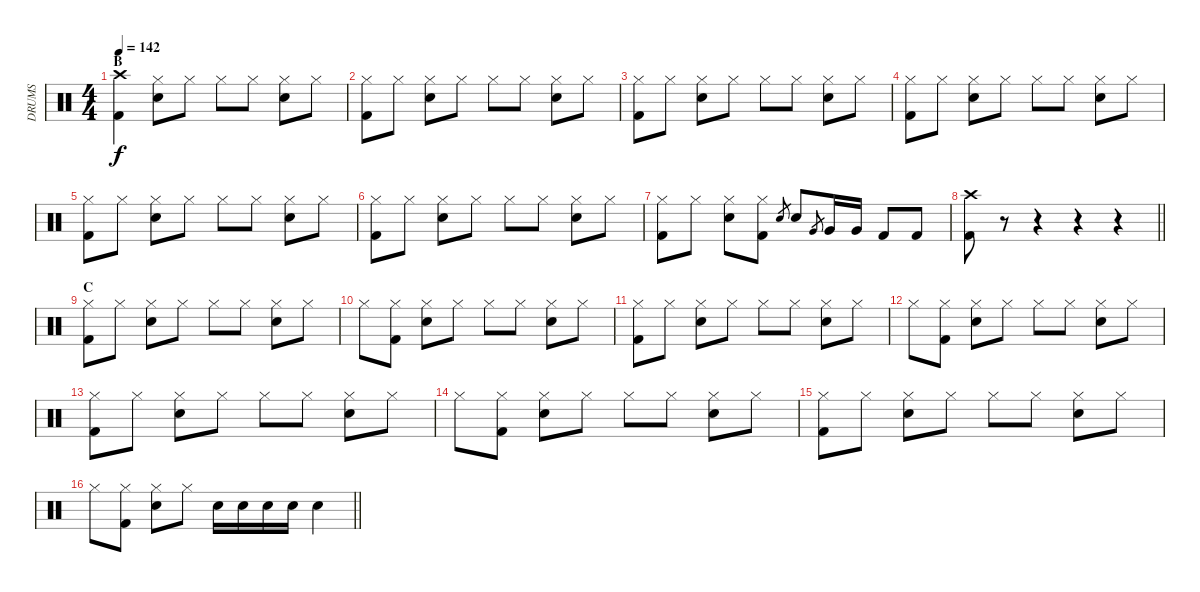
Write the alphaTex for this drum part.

\track ("DRUMS" "DRUMS") {instrument percussion}
\staff {score}
\articulation defaults
\ts (4 4)
\section ("" "B")
\tempo 142
\clef neutral
\ks c
("Crash high (hit)" "Kick (hit) 2").4{dy f} ("Hi-Hat (closed)" "Snare (hit) 2").8 "Hi-Hat (closed)".8 "Hi-Hat (closed)".8 "Hi-Hat (closed)".8 ("Hi-Hat (closed)" "Snare (hit) 2").8 "Hi-Hat (closed)".8 |
("Hi-Hat (closed)" "Kick (hit) 2").8 "Hi-Hat (closed)".8 ("Hi-Hat (closed)" "Snare (hit) 2").8 "Hi-Hat (closed)".8 "Hi-Hat (closed)".8 "Hi-Hat (closed)".8 ("Hi-Hat (closed)" "Snare (hit) 2").8 "Hi-Hat (closed)".8 |
("Hi-Hat (closed)" "Kick (hit) 2").8 "Hi-Hat (closed)".8 ("Hi-Hat (closed)" "Snare (hit) 2").8 "Hi-Hat (closed)".8 "Hi-Hat (closed)".8 "Hi-Hat (closed)".8 ("Hi-Hat (closed)" "Snare (hit) 2").8 "Hi-Hat (closed)".8 |
("Hi-Hat (closed)" "Kick (hit) 2").8 "Hi-Hat (closed)".8 ("Hi-Hat (closed)" "Snare (hit) 2").8 "Hi-Hat (closed)".8 "Hi-Hat (closed)".8 "Hi-Hat (closed)".8 ("Hi-Hat (closed)" "Snare (hit) 2").8 "Hi-Hat (closed)".8 |
("Hi-Hat (closed)" "Kick (hit) 2").8 "Hi-Hat (closed)".8 ("Hi-Hat (closed)" "Snare (hit) 2").8 "Hi-Hat (closed)".8 "Hi-Hat (closed)".8 "Hi-Hat (closed)".8 ("Hi-Hat (closed)" "Snare (hit) 2").8 "Hi-Hat (closed)".8 |
("Hi-Hat (closed)" "Kick (hit) 2").8 "Hi-Hat (closed)".8 ("Hi-Hat (closed)" "Snare (hit) 2").8 "Hi-Hat (closed)".8 "Hi-Hat (closed)".8 "Hi-Hat (closed)".8 ("Hi-Hat (closed)" "Snare (hit) 2").8 "Hi-Hat (closed)".8 |
("Hi-Hat (closed)" "Kick (hit) 2").8 "Hi-Hat (closed)".8 ("Hi-Hat (closed)" "Snare (hit) 2").8 ("Hi-Hat (closed)" "Kick (hit) 2").8 "Snare (hit) 2".8{gr} "Snare (hit) 2".8 "Very Low Tom (hit)".8{gr} "Very Low Tom (hit)".16 "Very Low Tom (hit)".16 "Kick (hit) 2".8 "Kick (hit) 2".8 |
\barLineRight lightlight
("Crash high (hit)" "Kick (hit) 2").8 r.8 r.4 r.4 r.4 |
\section ("" "C")
("Hi-Hat (closed)" "Kick (hit) 2").8 "Hi-Hat (closed)".8 ("Hi-Hat (closed)" "Snare (hit) 2").8 "Hi-Hat (closed)".8 "Hi-Hat (closed)".8 "Hi-Hat (closed)".8 ("Hi-Hat (closed)" "Snare (hit) 2").8 "Hi-Hat (closed)".8 |
"Hi-Hat (closed)".8 ("Hi-Hat (closed)" "Kick (hit) 2").8 ("Hi-Hat (closed)" "Snare (hit) 2").8 "Hi-Hat (closed)".8 "Hi-Hat (closed)".8 "Hi-Hat (closed)".8 ("Hi-Hat (closed)" "Snare (hit) 2").8 "Hi-Hat (closed)".8 |
("Hi-Hat (closed)" "Kick (hit) 2").8 "Hi-Hat (closed)".8 ("Hi-Hat (closed)" "Snare (hit) 2").8 "Hi-Hat (closed)".8 "Hi-Hat (closed)".8 "Hi-Hat (closed)".8 ("Hi-Hat (closed)" "Snare (hit) 2").8 "Hi-Hat (closed)".8 |
"Hi-Hat (closed)".8 ("Hi-Hat (closed)" "Kick (hit) 2").8 ("Hi-Hat (closed)" "Snare (hit) 2").8 "Hi-Hat (closed)".8 "Hi-Hat (closed)".8 "Hi-Hat (closed)".8 ("Hi-Hat (closed)" "Snare (hit) 2").8 "Hi-Hat (closed)".8 |
("Hi-Hat (closed)" "Kick (hit) 2").8 "Hi-Hat (closed)".8 ("Hi-Hat (closed)" "Snare (hit) 2").8 "Hi-Hat (closed)".8 "Hi-Hat (closed)".8 "Hi-Hat (closed)".8 ("Hi-Hat (closed)" "Snare (hit) 2").8 "Hi-Hat (closed)".8 |
"Hi-Hat (closed)".8 ("Hi-Hat (closed)" "Kick (hit) 2").8 ("Hi-Hat (closed)" "Snare (hit) 2").8 "Hi-Hat (closed)".8 "Hi-Hat (closed)".8 "Hi-Hat (closed)".8 ("Hi-Hat (closed)" "Snare (hit) 2").8 "Hi-Hat (closed)".8 |
("Hi-Hat (closed)" "Kick (hit) 2").8 "Hi-Hat (closed)".8 ("Hi-Hat (closed)" "Snare (hit) 2").8 "Hi-Hat (closed)".8 "Hi-Hat (closed)".8 "Hi-Hat (closed)".8 ("Hi-Hat (closed)" "Snare (hit) 2").8 "Hi-Hat (closed)".8 |
\barLineRight lightlight "Hi-Hat (closed)".8
("Hi-Hat (closed)" "Kick (hit) 2").8 ("Hi-Hat (closed)" "Snare (hit) 2").8 "Hi-Hat (closed)".8 "Snare (hit) 2".16 "Snare (hit) 2".16 "Snare (hit) 2".16 "Snare (hit) 2".16 "Snare (hit) 2".4
